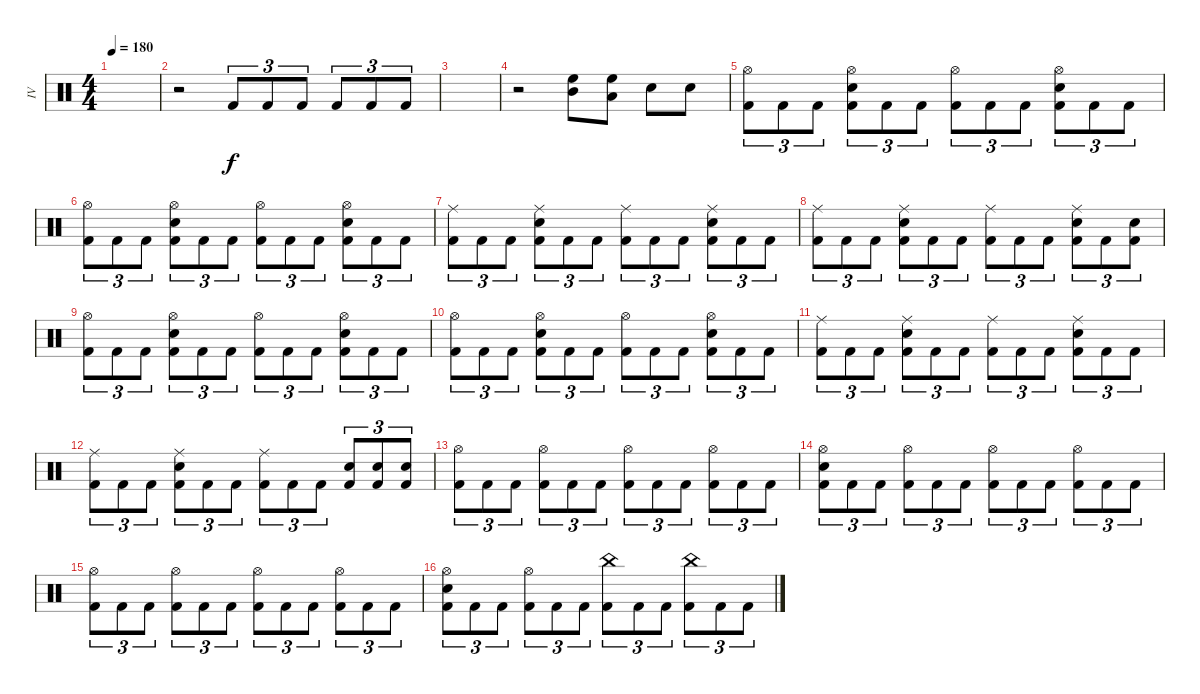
\track ("IV" "IV") {instrument percussion}
\staff {score}
\articulation defaults
\ts (4 4)
\tempo 180
\clef neutral
\ks c
|
r.2 "Kick (hit) 2".8{tu (3 2)} "Kick (hit) 2".8{tu (3 2)} "Kick (hit) 2".8{tu (3 2)} "Kick (hit) 2".8{tu (3 2)} "Kick (hit) 2".8{tu (3 2)} "Kick (hit) 2".8{tu (3 2)} |
|
r.2 ("High Floor Tom (hit)" "Mid Tom (hit)").8 ("High Floor Tom (hit)" "Low Tom (hit)").8 "Snare (hit) 2".8 "Snare (hit) 2".8 |
("Hi-Hat (open)" "Kick (hit) 2").8{tu (3 2)} "Kick (hit) 2".8{tu (3 2)} "Kick (hit) 2".8{tu (3 2)} ("Hi-Hat (open)" "Snare (hit) 2" "Kick (hit) 2").8{tu (3 2)} "Kick (hit) 2".8{tu (3 2)} "Kick (hit) 2".8{tu (3 2)} ("Hi-Hat (open)" "Kick (hit) 2").8{tu (3 2)} "Kick (hit) 2".8{tu (3 2)} "Kick (hit) 2".8{tu (3 2)} ("Hi-Hat (open)" "Snare (hit) 2" "Kick (hit) 2").8{tu (3 2)} "Kick (hit) 2".8{tu (3 2)} "Kick (hit) 2".8{tu (3 2)} |
("Hi-Hat (open)" "Kick (hit) 2").8{tu (3 2)} "Kick (hit) 2".8{tu (3 2)} "Kick (hit) 2".8{tu (3 2)} ("Hi-Hat (open)" "Snare (hit) 2" "Kick (hit) 2").8{tu (3 2)} "Kick (hit) 2".8{tu (3 2)} "Kick (hit) 2".8{tu (3 2)} ("Hi-Hat (open)" "Kick (hit) 2").8{tu (3 2)} "Kick (hit) 2".8{tu (3 2)} "Kick (hit) 2".8{tu (3 2)} ("Hi-Hat (open)" "Snare (hit) 2" "Kick (hit) 2").8{tu (3 2)} "Kick (hit) 2".8{tu (3 2)} "Kick (hit) 2".8{tu (3 2)} |
("Ride (middle)" "Kick (hit) 2").8{tu (3 2)} "Kick (hit) 2".8{tu (3 2)} "Kick (hit) 2".8{tu (3 2)} ("Ride (middle)" "Snare (hit) 2" "Kick (hit) 2").8{tu (3 2)} "Kick (hit) 2".8{tu (3 2)} "Kick (hit) 2".8{tu (3 2)} ("Ride (middle)" "Kick (hit) 2").8{tu (3 2)} "Kick (hit) 2".8{tu (3 2)} "Kick (hit) 2".8{tu (3 2)} ("Ride (middle)" "Snare (hit) 2" "Kick (hit) 2").8{tu (3 2)} "Kick (hit) 2".8{tu (3 2)} "Kick (hit) 2".8{tu (3 2)} |
("Ride (middle)" "Kick (hit) 2").8{tu (3 2)} "Kick (hit) 2".8{tu (3 2)} "Kick (hit) 2".8{tu (3 2)} ("Ride (middle)" "Snare (hit) 2" "Kick (hit) 2").8{tu (3 2)} "Kick (hit) 2".8{tu (3 2)} "Kick (hit) 2".8{tu (3 2)} ("Ride (middle)" "Kick (hit) 2").8{tu (3 2)} "Kick (hit) 2".8{tu (3 2)} "Kick (hit) 2".8{tu (3 2)} ("Ride (middle)" "Snare (hit) 2" "Kick (hit) 2").8{tu (3 2)} "Kick (hit) 2".8{tu (3 2)} ("Snare (hit) 2" "Kick (hit) 2").8{tu (3 2)} |
("Hi-Hat (open)" "Kick (hit) 2").8{tu (3 2)} "Kick (hit) 2".8{tu (3 2)} "Kick (hit) 2".8{tu (3 2)} ("Hi-Hat (open)" "Snare (hit) 2" "Kick (hit) 2").8{tu (3 2)} "Kick (hit) 2".8{tu (3 2)} "Kick (hit) 2".8{tu (3 2)} ("Hi-Hat (open)" "Kick (hit) 2").8{tu (3 2)} "Kick (hit) 2".8{tu (3 2)} "Kick (hit) 2".8{tu (3 2)} ("Hi-Hat (open)" "Snare (hit) 2" "Kick (hit) 2").8{tu (3 2)} "Kick (hit) 2".8{tu (3 2)} "Kick (hit) 2".8{tu (3 2)} |
("Hi-Hat (open)" "Kick (hit) 2").8{tu (3 2)} "Kick (hit) 2".8{tu (3 2)} "Kick (hit) 2".8{tu (3 2)} ("Hi-Hat (open)" "Snare (hit) 2" "Kick (hit) 2").8{tu (3 2)} "Kick (hit) 2".8{tu (3 2)} "Kick (hit) 2".8{tu (3 2)} ("Hi-Hat (open)" "Kick (hit) 2").8{tu (3 2)} "Kick (hit) 2".8{tu (3 2)} "Kick (hit) 2".8{tu (3 2)} ("Hi-Hat (open)" "Snare (hit) 2" "Kick (hit) 2").8{tu (3 2)} "Kick (hit) 2".8{tu (3 2)} "Kick (hit) 2".8{tu (3 2)} |
("Ride (middle)" "Kick (hit) 2").8{tu (3 2)} "Kick (hit) 2".8{tu (3 2)} "Kick (hit) 2".8{tu (3 2)} ("Ride (middle)" "Snare (hit) 2" "Kick (hit) 2").8{tu (3 2)} "Kick (hit) 2".8{tu (3 2)} "Kick (hit) 2".8{tu (3 2)} ("Ride (middle)" "Kick (hit) 2").8{tu (3 2)} "Kick (hit) 2".8{tu (3 2)} "Kick (hit) 2".8{tu (3 2)} ("Ride (middle)" "Snare (hit) 2" "Kick (hit) 2").8{tu (3 2)} "Kick (hit) 2".8{tu (3 2)} "Kick (hit) 2".8{tu (3 2)} |
("Ride (middle)" "Kick (hit) 2").8{tu (3 2)} "Kick (hit) 2".8{tu (3 2)} "Kick (hit) 2".8{tu (3 2)} ("Ride (middle)" "Snare (hit) 2" "Kick (hit) 2").8{tu (3 2)} "Kick (hit) 2".8{tu (3 2)} "Kick (hit) 2".8{tu (3 2)} ("Ride (middle)" "Kick (hit) 2").8{tu (3 2)} "Kick (hit) 2".8{tu (3 2)} "Kick (hit) 2".8{tu (3 2)} ("Snare (hit) 2" "Kick (hit) 2").8{tu (3 2)} ("Snare (hit) 2" "Kick (hit) 2").8{tu (3 2)} ("Snare (hit) 2" "Kick (hit) 2").8{tu (3 2)} |
("Hi-Hat (open)" "Kick (hit) 2").8{tu (3 2)} "Kick (hit) 2".8{tu (3 2)} "Kick (hit) 2".8{tu (3 2)} ("Hi-Hat (open)" "Kick (hit) 2").8{tu (3 2)} "Kick (hit) 2".8{tu (3 2)} "Kick (hit) 2".8{tu (3 2)} ("Hi-Hat (open)" "Kick (hit) 2").8{tu (3 2)} "Kick (hit) 2".8{tu (3 2)} "Kick (hit) 2".8{tu (3 2)} ("Hi-Hat (open)" "Kick (hit) 2").8{tu (3 2)} "Kick (hit) 2".8{tu (3 2)} "Kick (hit) 2".8{tu (3 2)} |
("Hi-Hat (open)" "Snare (hit) 2" "Kick (hit) 2").8{tu (3 2)} "Kick (hit) 2".8{tu (3 2)} "Kick (hit) 2".8{tu (3 2)} ("Hi-Hat (open)" "Kick (hit) 2").8{tu (3 2)} "Kick (hit) 2".8{tu (3 2)} "Kick (hit) 2".8{tu (3 2)} ("Hi-Hat (open)" "Kick (hit) 2").8{tu (3 2)} "Kick (hit) 2".8{tu (3 2)} "Kick (hit) 2".8{tu (3 2)} ("Hi-Hat (open)" "Kick (hit) 2").8{tu (3 2)} "Kick (hit) 2".8{tu (3 2)} "Kick (hit) 2".8{tu (3 2)} |
("Hi-Hat (open)" "Kick (hit) 2").8{tu (3 2)} "Kick (hit) 2".8{tu (3 2)} "Kick (hit) 2".8{tu (3 2)} ("Hi-Hat (open)" "Kick (hit) 2").8{tu (3 2)} "Kick (hit) 2".8{tu (3 2)} "Kick (hit) 2".8{tu (3 2)} ("Hi-Hat (open)" "Kick (hit) 2").8{tu (3 2)} "Kick (hit) 2".8{tu (3 2)} "Kick (hit) 2".8{tu (3 2)} ("Hi-Hat (open)" "Kick (hit) 2").8{tu (3 2)} "Kick (hit) 2".8{tu (3 2)} "Kick (hit) 2".8{tu (3 2)} |
("Hi-Hat (open)" "Snare (hit) 2" "Kick (hit) 2").8{tu (3 2)} "Kick (hit) 2".8{tu (3 2)} "Kick (hit) 2".8{tu (3 2)} ("Hi-Hat (open)" "Kick (hit) 2").8{tu (3 2)} "Kick (hit) 2".8{tu (3 2)} "Kick (hit) 2".8{tu (3 2)} ("China (hit)" "Kick (hit) 2").8{tu (3 2)} "Kick (hit) 2".8{tu (3 2)} "Kick (hit) 2".8{tu (3 2)} ("China (hit)" "Kick (hit) 2").8{tu (3 2)} "Kick (hit) 2".8{tu (3 2)} "Kick (hit) 2".8{tu (3 2)}
